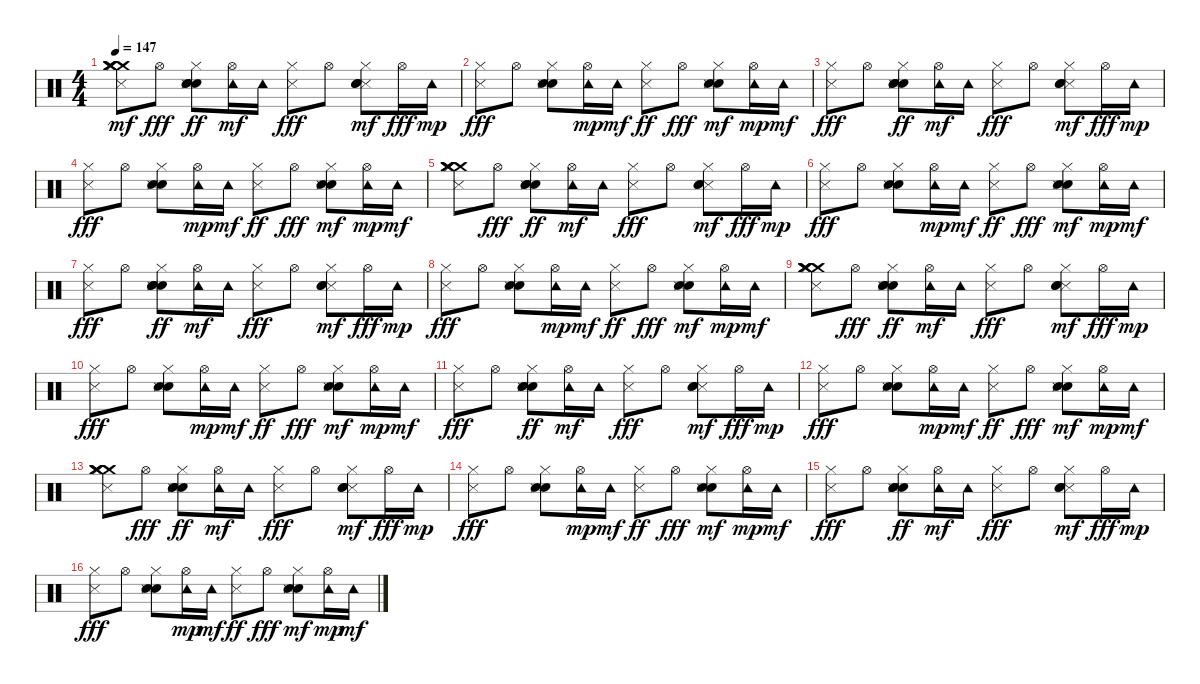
\track "" {instrument percussion}
\staff {score}
\articulation defaults
\ts (4 4)
\tempo 147
\clef neutral
\ks c
("Crash medium (hit)" "Crash medium (hit)" "Hi-Hat (closed)" "Metronome (hit)" "Crash medium (hit)" "Crash medium (hit)").8{dy mf} "Hi-Hat (open)".8{dy fff} ("Hand Clap (hit)" "Metronome (hit)" "Hi-Hat (closed)" "Snare (hit) 2" "Snare (hit) 2").8{dy ff} ("Hi-Hat (open)" "Tambourine (hit)").16{dy mf} "Tambourine (hit)".16 ("Hi-Hat (closed)" "Metronome (hit)").8{dy fff} "Hi-Hat (open)".8 ("Metronome (hit)" "Hand Clap (hit)" "Hi-Hat (closed)" "Snare (hit) 2").8{dy mf} "Hi-Hat (open)".16{dy fff} "Tambourine (hit)".16{dy mp} |
("Metronome (hit)" "Hi-Hat (closed)").8{dy fff} "Hi-Hat (open)".8 ("Hand Clap (hit)" "Metronome (hit)" "Hi-Hat (closed)" "Snare (hit) 2").8 ("Hi-Hat (open)" "Tambourine (hit)").16{dy mp} "Tambourine (hit)".16{dy mf} ("Metronome (hit)" "Hi-Hat (closed)").8{dy ff} "Hi-Hat (open)".8{dy fff} ("Hand Clap (hit)" "Metronome (hit)" "Hi-Hat (closed)" "Snare (hit) 2").8{dy mf} ("Hi-Hat (open)" "Tambourine (hit)").16{dy mp} "Tambourine (hit)".16{dy mf} |
("Hi-Hat (closed)" "Metronome (hit)").8{dy fff} "Hi-Hat (open)".8 ("Hand Clap (hit)" "Metronome (hit)" "Hi-Hat (closed)" "Snare (hit) 2" "Snare (hit) 2").8{dy ff} ("Hi-Hat (open)" "Tambourine (hit)").16{dy mf} "Tambourine (hit)".16 ("Hi-Hat (closed)" "Metronome (hit)").8{dy fff} "Hi-Hat (open)".8 ("Metronome (hit)" "Hand Clap (hit)" "Hi-Hat (closed)" "Snare (hit) 2").8{dy mf} "Hi-Hat (open)".16{dy fff} "Tambourine (hit)".16{dy mp} |
("Metronome (hit)" "Hi-Hat (closed)").8{dy fff} "Hi-Hat (open)".8 ("Hand Clap (hit)" "Metronome (hit)" "Hi-Hat (closed)" "Snare (hit) 2").8 ("Hi-Hat (open)" "Tambourine (hit)").16{dy mp} "Tambourine (hit)".16{dy mf} ("Metronome (hit)" "Hi-Hat (closed)").8{dy ff} "Hi-Hat (open)".8{dy fff} ("Hand Clap (hit)" "Metronome (hit)" "Hi-Hat (closed)" "Snare (hit) 2").8{dy mf} ("Hi-Hat (open)" "Tambourine (hit)").16{dy mp} "Tambourine (hit)".16{dy mf} |
("Crash medium (hit)" "Crash medium (hit)" "Hi-Hat (closed)" "Metronome (hit)" "Crash medium (hit)" "Crash medium (hit)").8 "Hi-Hat (open)".8{dy fff} ("Hand Clap (hit)" "Metronome (hit)" "Hi-Hat (closed)" "Snare (hit) 2" "Snare (hit) 2").8{dy ff} ("Hi-Hat (open)" "Tambourine (hit)").16{dy mf} "Tambourine (hit)".16 ("Hi-Hat (closed)" "Metronome (hit)").8{dy fff} "Hi-Hat (open)".8 ("Metronome (hit)" "Hand Clap (hit)" "Hi-Hat (closed)" "Snare (hit) 2").8{dy mf} "Hi-Hat (open)".16{dy fff} "Tambourine (hit)".16{dy mp} |
("Metronome (hit)" "Hi-Hat (closed)").8{dy fff} "Hi-Hat (open)".8 ("Hand Clap (hit)" "Metronome (hit)" "Hi-Hat (closed)" "Snare (hit) 2").8 ("Hi-Hat (open)" "Tambourine (hit)").16{dy mp} "Tambourine (hit)".16{dy mf} ("Metronome (hit)" "Hi-Hat (closed)").8{dy ff} "Hi-Hat (open)".8{dy fff} ("Hand Clap (hit)" "Metronome (hit)" "Hi-Hat (closed)" "Snare (hit) 2").8{dy mf} ("Hi-Hat (open)" "Tambourine (hit)").16{dy mp} "Tambourine (hit)".16{dy mf} |
("Hi-Hat (closed)" "Metronome (hit)").8{dy fff} "Hi-Hat (open)".8 ("Hand Clap (hit)" "Metronome (hit)" "Hi-Hat (closed)" "Snare (hit) 2" "Snare (hit) 2").8{dy ff} ("Hi-Hat (open)" "Tambourine (hit)").16{dy mf} "Tambourine (hit)".16 ("Hi-Hat (closed)" "Metronome (hit)").8{dy fff} "Hi-Hat (open)".8 ("Metronome (hit)" "Hand Clap (hit)" "Hi-Hat (closed)" "Snare (hit) 2").8{dy mf} "Hi-Hat (open)".16{dy fff} "Tambourine (hit)".16{dy mp} |
("Metronome (hit)" "Hi-Hat (closed)").8{dy fff} "Hi-Hat (open)".8 ("Hand Clap (hit)" "Metronome (hit)" "Hi-Hat (closed)" "Snare (hit) 2").8 ("Hi-Hat (open)" "Tambourine (hit)").16{dy mp} "Tambourine (hit)".16{dy mf} ("Metronome (hit)" "Hi-Hat (closed)").8{dy ff} "Hi-Hat (open)".8{dy fff} ("Hand Clap (hit)" "Metronome (hit)" "Hi-Hat (closed)" "Snare (hit) 2").8{dy mf} ("Hi-Hat (open)" "Tambourine (hit)").16{dy mp} "Tambourine (hit)".16{dy mf} |
("Crash medium (hit)" "Crash medium (hit)" "Hi-Hat (closed)" "Metronome (hit)" "Crash medium (hit)" "Crash medium (hit)").8 "Hi-Hat (open)".8{dy fff} ("Hand Clap (hit)" "Metronome (hit)" "Hi-Hat (closed)" "Snare (hit) 2" "Snare (hit) 2").8{dy ff} ("Hi-Hat (open)" "Tambourine (hit)").16{dy mf} "Tambourine (hit)".16 ("Hi-Hat (closed)" "Metronome (hit)").8{dy fff} "Hi-Hat (open)".8 ("Metronome (hit)" "Hand Clap (hit)" "Hi-Hat (closed)" "Snare (hit) 2").8{dy mf} "Hi-Hat (open)".16{dy fff} "Tambourine (hit)".16{dy mp} |
("Metronome (hit)" "Hi-Hat (closed)").8{dy fff} "Hi-Hat (open)".8 ("Hand Clap (hit)" "Metronome (hit)" "Hi-Hat (closed)" "Snare (hit) 2").8 ("Hi-Hat (open)" "Tambourine (hit)").16{dy mp} "Tambourine (hit)".16{dy mf} ("Metronome (hit)" "Hi-Hat (closed)").8{dy ff} "Hi-Hat (open)".8{dy fff} ("Hand Clap (hit)" "Metronome (hit)" "Hi-Hat (closed)" "Snare (hit) 2").8{dy mf} ("Hi-Hat (open)" "Tambourine (hit)").16{dy mp} "Tambourine (hit)".16{dy mf} |
("Hi-Hat (closed)" "Metronome (hit)").8{dy fff} "Hi-Hat (open)".8 ("Hand Clap (hit)" "Metronome (hit)" "Hi-Hat (closed)" "Snare (hit) 2" "Snare (hit) 2").8{dy ff} ("Hi-Hat (open)" "Tambourine (hit)").16{dy mf} "Tambourine (hit)".16 ("Hi-Hat (closed)" "Metronome (hit)").8{dy fff} "Hi-Hat (open)".8 ("Metronome (hit)" "Hand Clap (hit)" "Hi-Hat (closed)" "Snare (hit) 2").8{dy mf} "Hi-Hat (open)".16{dy fff} "Tambourine (hit)".16{dy mp} |
("Metronome (hit)" "Hi-Hat (closed)").8{dy fff} "Hi-Hat (open)".8 ("Hand Clap (hit)" "Metronome (hit)" "Hi-Hat (closed)" "Snare (hit) 2").8 ("Hi-Hat (open)" "Tambourine (hit)").16{dy mp} "Tambourine (hit)".16{dy mf} ("Metronome (hit)" "Hi-Hat (closed)").8{dy ff} "Hi-Hat (open)".8{dy fff} ("Hand Clap (hit)" "Metronome (hit)" "Hi-Hat (closed)" "Snare (hit) 2").8{dy mf} ("Hi-Hat (open)" "Tambourine (hit)").16{dy mp} "Tambourine (hit)".16{dy mf} |
("Crash medium (hit)" "Crash medium (hit)" "Hi-Hat (closed)" "Metronome (hit)" "Crash medium (hit)" "Crash medium (hit)").8 "Hi-Hat (open)".8{dy fff} ("Hand Clap (hit)" "Metronome (hit)" "Hi-Hat (closed)" "Snare (hit) 2" "Snare (hit) 2").8{dy ff} ("Hi-Hat (open)" "Tambourine (hit)").16{dy mf} "Tambourine (hit)".16 ("Hi-Hat (closed)" "Metronome (hit)").8{dy fff} "Hi-Hat (open)".8 ("Metronome (hit)" "Hand Clap (hit)" "Hi-Hat (closed)" "Snare (hit) 2").8{dy mf} "Hi-Hat (open)".16{dy fff} "Tambourine (hit)".16{dy mp} |
("Metronome (hit)" "Hi-Hat (closed)").8{dy fff} "Hi-Hat (open)".8 ("Hand Clap (hit)" "Metronome (hit)" "Hi-Hat (closed)" "Snare (hit) 2").8 ("Hi-Hat (open)" "Tambourine (hit)").16{dy mp} "Tambourine (hit)".16{dy mf} ("Metronome (hit)" "Hi-Hat (closed)").8{dy ff} "Hi-Hat (open)".8{dy fff} ("Hand Clap (hit)" "Metronome (hit)" "Hi-Hat (closed)" "Snare (hit) 2").8{dy mf} ("Hi-Hat (open)" "Tambourine (hit)").16{dy mp} "Tambourine (hit)".16{dy mf} |
("Hi-Hat (closed)" "Metronome (hit)").8{dy fff} "Hi-Hat (open)".8 ("Hand Clap (hit)" "Metronome (hit)" "Hi-Hat (closed)" "Snare (hit) 2" "Snare (hit) 2").8{dy ff} ("Hi-Hat (open)" "Tambourine (hit)").16{dy mf} "Tambourine (hit)".16 ("Hi-Hat (closed)" "Metronome (hit)").8{dy fff} "Hi-Hat (open)".8 ("Metronome (hit)" "Hand Clap (hit)" "Hi-Hat (closed)" "Snare (hit) 2").8{dy mf} "Hi-Hat (open)".16{dy fff} "Tambourine (hit)".16{dy mp} |
("Metronome (hit)" "Hi-Hat (closed)").8{dy fff} "Hi-Hat (open)".8 ("Hand Clap (hit)" "Metronome (hit)" "Hi-Hat (closed)" "Snare (hit) 2").8 ("Hi-Hat (open)" "Tambourine (hit)").16{dy mp} "Tambourine (hit)".16{dy mf} ("Metronome (hit)" "Hi-Hat (closed)").8{dy ff} "Hi-Hat (open)".8{dy fff} ("Hand Clap (hit)" "Metronome (hit)" "Hi-Hat (closed)" "Snare (hit) 2").8{dy mf} ("Hi-Hat (open)" "Tambourine (hit)").16{dy mp} "Tambourine (hit)".16{dy mf}
